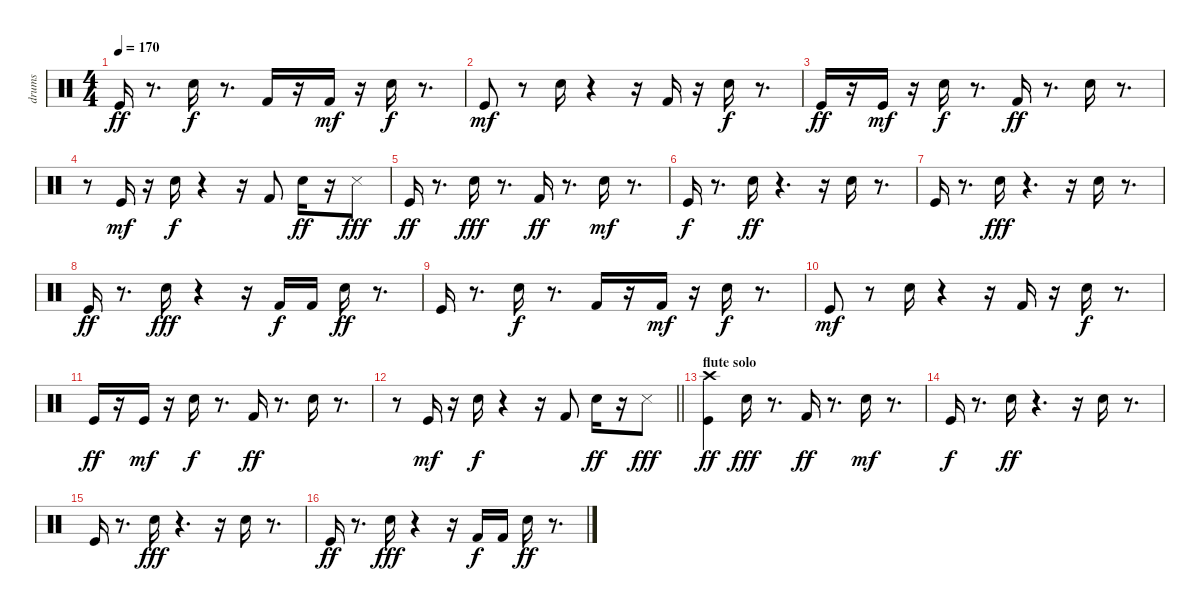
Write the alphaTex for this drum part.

\track ("drums" "drums") {instrument percussion}
\staff {score}
\articulation defaults
\ts (4 4)
\tempo 170
\clef neutral
\ks c "Kick (hit)".16{dy ff}
r.8{d} "Snare (hit) 2".16{dy f} r.8{d} "Kick (hit) 2".16 r.16 "Kick (hit) 2".16{dy mf} r.16 "Snare (hit) 2".16{dy f} r.8{d} |
"Kick (hit)".8{dy mf} r.8 "Snare (hit) 2".16 r.4 r.16 "Kick (hit) 2".16 r.16 "Electric Snare (hit)".16{dy f} r.8{d} |
"Kick (hit)".16{dy ff} r.16 "Kick (hit)".16{dy mf} r.16 "Snare (hit) 2".16{dy f} r.8{d} "Kick (hit) 2".16{dy ff} r.8{d} "Electric Snare (hit)".16 r.8{d} |
r.8 "Kick (hit)".16{dy mf} r.16 "Snare (hit) 2".16{dy f} r.4 r.16 "Kick (hit) 2".8 "Electric Snare (hit)".16{dy ff} r.16 "Snare (side stick) 3".8{dy fff} |
"Kick (hit)".16{dy ff} r.8{d} "Snare (hit) 2".16{dy fff} r.8{d} "Kick (hit) 2".16{dy ff} r.8{d} "Electric Snare (hit)".16{dy mf} r.8{d} |
"Kick (hit)".16{dy f} r.8{d} "Snare (hit) 2".16{dy ff} r.4{d} r.16 "Electric Snare (hit)".16 r.8{d} |
"Kick (hit)".16 r.8{d} "Snare (hit) 2".16{dy fff} r.4{d} r.16 "Electric Snare (hit)".16 r.8{d} |
"Kick (hit)".16{dy ff} r.8{d} "Snare (hit) 2".16{dy fff} r.4 r.16 "Kick (hit) 2".16{dy f} "Kick (hit) 2".16 "Electric Snare (hit)".16{dy ff} r.8{d} |
"Kick (hit)".16 r.8{d} "Snare (hit) 2".16{dy f} r.8{d} "Kick (hit) 2".16 r.16 "Kick (hit) 2".16{dy mf} r.16 "Snare (hit) 2".16{dy f} r.8{d} |
"Kick (hit)".8{dy mf} r.8 "Snare (hit) 2".16 r.4 r.16 "Kick (hit) 2".16 r.16 "Electric Snare (hit)".16{dy f} r.8{d} |
"Kick (hit)".16{dy ff} r.16 "Kick (hit)".16{dy mf} r.16 "Snare (hit) 2".16{dy f} r.8{d} "Kick (hit) 2".16{dy ff} r.8{d} "Electric Snare (hit)".16 r.8{d} |
\barLineRight lightlight
r.8 "Kick (hit)".16{dy mf} r.16 "Snare (hit) 2".16{dy f} r.4 r.16 "Kick (hit) 2".8 "Electric Snare (hit)".16{dy ff} r.16 "Snare (side stick) 3".8{dy fff} |
\section ("" "flute solo")
("Kick (hit)" "Crash high (hit)").4{dy ff} "Snare (hit) 2".16{dy fff} r.8{d} "Kick (hit) 2".16{dy ff} r.8{d} "Electric Snare (hit)".16{dy mf} r.8{d} |
"Kick (hit)".16{dy f} r.8{d} "Snare (hit) 2".16{dy ff} r.4{d} r.16 "Electric Snare (hit)".16 r.8{d} |
"Kick (hit)".16 r.8{d} "Snare (hit) 2".16{dy fff} r.4{d} r.16 "Electric Snare (hit)".16 r.8{d} |
"Kick (hit)".16{dy ff} r.8{d} "Snare (hit) 2".16{dy fff} r.4 r.16 "Kick (hit) 2".16{dy f} "Kick (hit) 2".16 "Electric Snare (hit)".16{dy ff} r.8{d}
